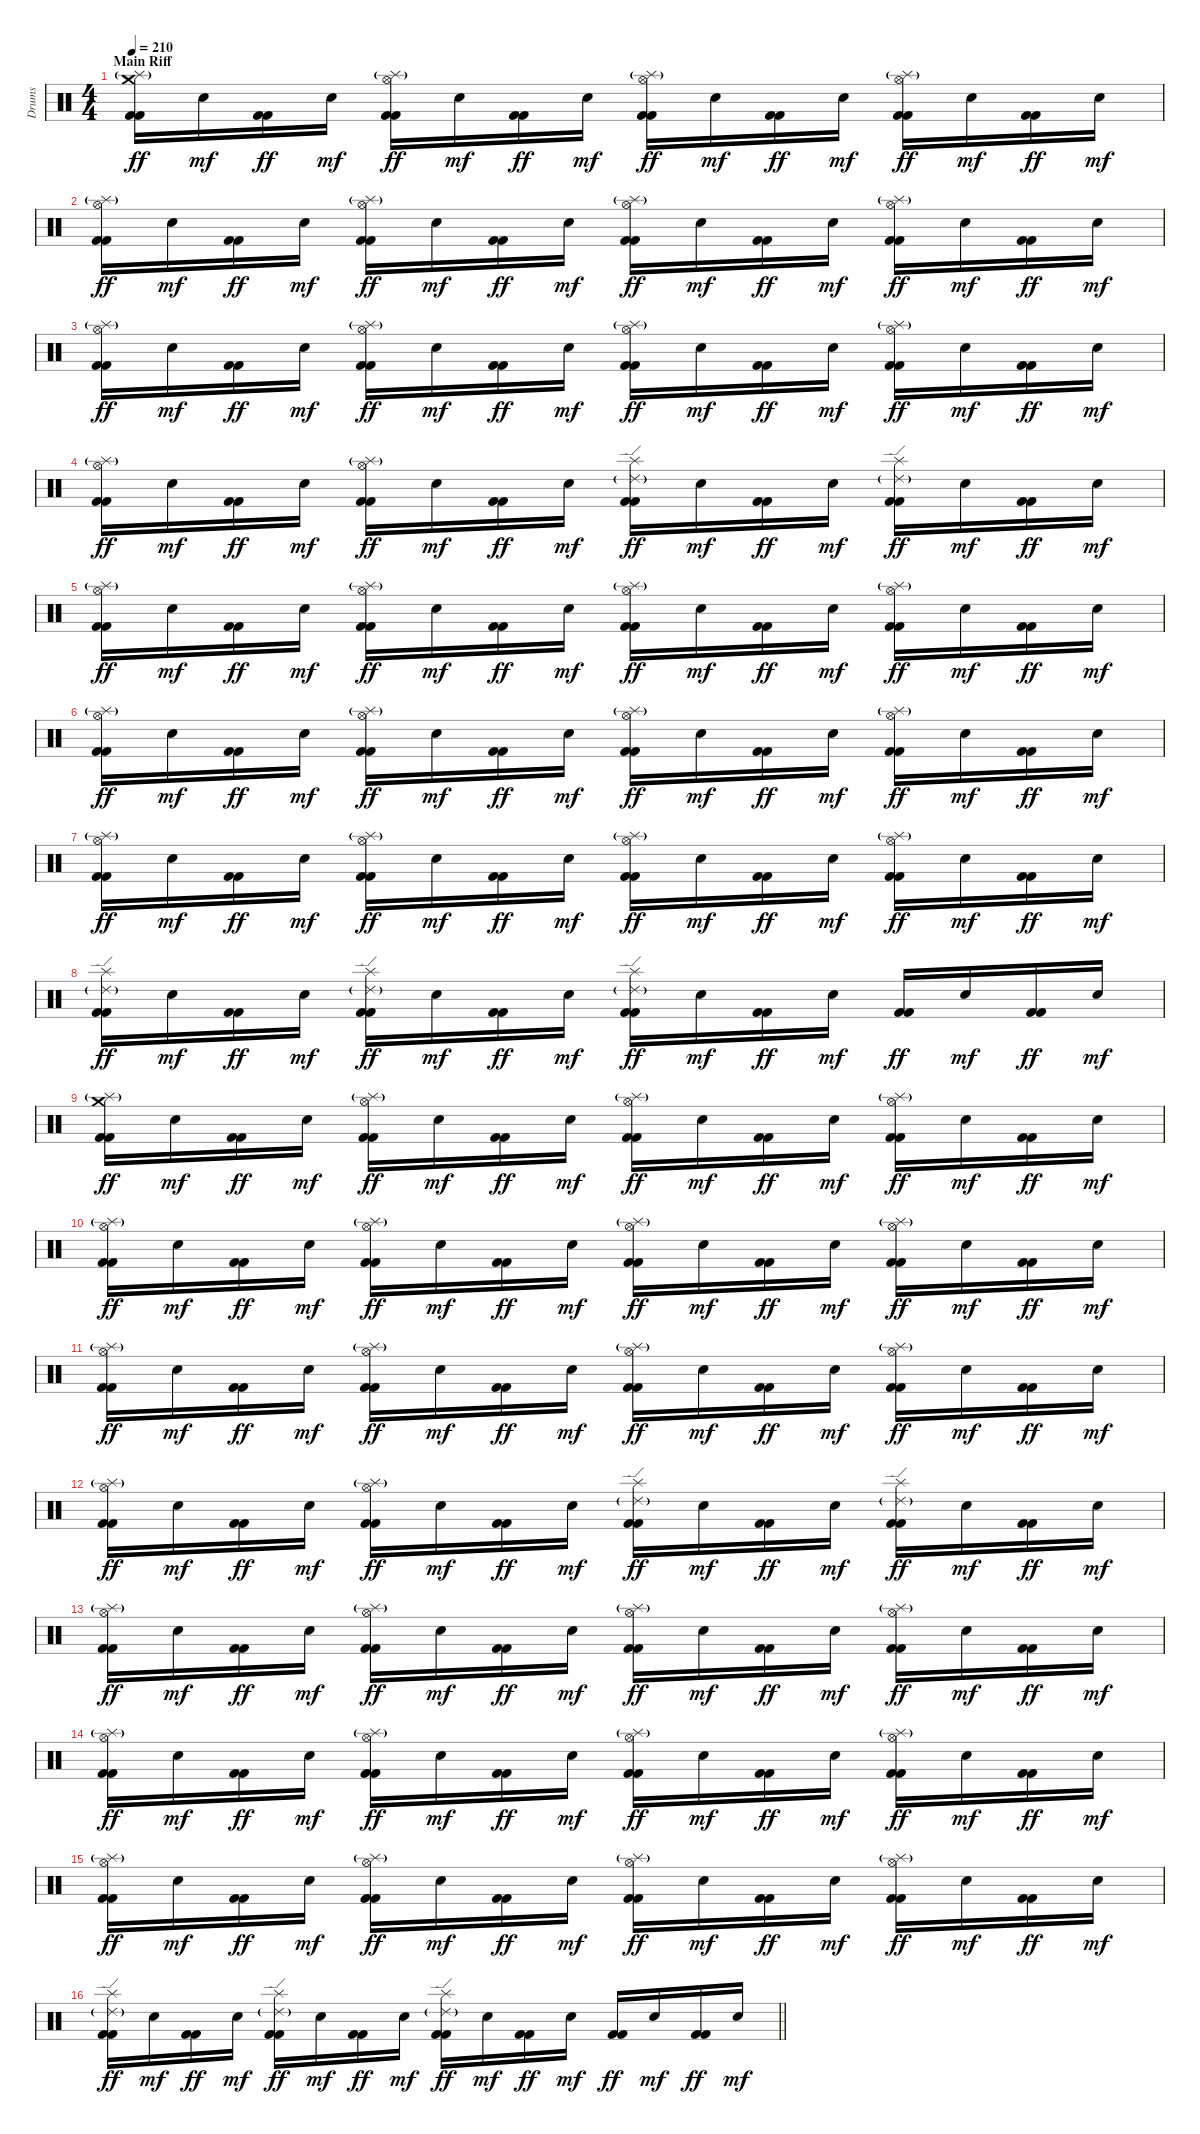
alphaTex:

\track ("Drums" "Drums") {instrument percussion}
\staff {score}
\articulation defaults
\ts (4 4)
\section ("" "Main Riff")
\tempo 210
\clef neutral
\ks c
("Crash medium (hit)" "Splash (hit)"{g} "Kick (hit) 2" "Kick (hit) 2").16{dy ff} "Snare (hit) 2".16{dy mf} ("Kick (hit) 2" "Kick (hit) 2").16{dy ff} "Snare (hit) 2".16{dy mf} ("Hi-Hat (open)" "Splash (hit)"{g} "Kick (hit) 2" "Kick (hit) 2").16{dy ff} "Snare (hit) 2".16{dy mf} ("Kick (hit) 2" "Kick (hit) 2").16{dy ff} "Snare (hit) 2".16{dy mf} ("Hi-Hat (open)" "Splash (hit)"{g} "Kick (hit) 2" "Kick (hit) 2").16{dy ff} "Snare (hit) 2".16{dy mf} ("Kick (hit) 2" "Kick (hit) 2").16{dy ff} "Snare (hit) 2".16{dy mf} ("Hi-Hat (open)" "Splash (hit)"{g} "Kick (hit) 2" "Kick (hit) 2").16{dy ff} "Snare (hit) 2".16{dy mf} ("Kick (hit) 2" "Kick (hit) 2").16{dy ff} "Snare (hit) 2".16{dy mf} |
("Hi-Hat (open)" "Splash (hit)"{g} "Kick (hit) 2" "Kick (hit) 2").16{dy ff} "Snare (hit) 2".16{dy mf} ("Kick (hit) 2" "Kick (hit) 2").16{dy ff} "Snare (hit) 2".16{dy mf} ("Hi-Hat (open)" "Splash (hit)"{g} "Kick (hit) 2" "Kick (hit) 2").16{dy ff} "Snare (hit) 2".16{dy mf} ("Kick (hit) 2" "Kick (hit) 2").16{dy ff} "Snare (hit) 2".16{dy mf} ("Hi-Hat (open)" "Splash (hit)"{g} "Kick (hit) 2" "Kick (hit) 2").16{dy ff} "Snare (hit) 2".16{dy mf} ("Kick (hit) 2" "Kick (hit) 2").16{dy ff} "Snare (hit) 2".16{dy mf} ("Hi-Hat (open)" "Splash (hit)"{g} "Kick (hit) 2" "Kick (hit) 2").16{dy ff} "Snare (hit) 2".16{dy mf} ("Kick (hit) 2" "Kick (hit) 2").16{dy ff} "Snare (hit) 2".16{dy mf} |
("Hi-Hat (open)" "Splash (hit)"{g} "Kick (hit) 2" "Kick (hit) 2").16{dy ff} "Snare (hit) 2".16{dy mf} ("Kick (hit) 2" "Kick (hit) 2").16{dy ff} "Snare (hit) 2".16{dy mf} ("Hi-Hat (open)" "Splash (hit)"{g} "Kick (hit) 2" "Kick (hit) 2").16{dy ff} "Snare (hit) 2".16{dy mf} ("Kick (hit) 2" "Kick (hit) 2").16{dy ff} "Snare (hit) 2".16{dy mf} ("Hi-Hat (open)" "Splash (hit)"{g} "Kick (hit) 2" "Kick (hit) 2").16{dy ff} "Snare (hit) 2".16{dy mf} ("Kick (hit) 2" "Kick (hit) 2").16{dy ff} "Snare (hit) 2".16{dy mf} ("Hi-Hat (open)" "Splash (hit)"{g} "Kick (hit) 2" "Kick (hit) 2").16{dy ff} "Snare (hit) 2".16{dy mf} ("Kick (hit) 2" "Kick (hit) 2").16{dy ff} "Snare (hit) 2".16{dy mf} |
("Hi-Hat (open)" "Splash (hit)"{g} "Kick (hit) 2" "Kick (hit) 2").16{dy ff} "Snare (hit) 2".16{dy mf} ("Kick (hit) 2" "Kick (hit) 2").16{dy ff} "Snare (hit) 2".16{dy mf} ("Hi-Hat (open)" "Splash (hit)"{g} "Kick (hit) 2" "Kick (hit) 2").16{dy ff} "Snare (hit) 2".16{dy mf} ("Kick (hit) 2" "Kick (hit) 2").16{dy ff} "Snare (hit) 2".16{dy mf} ("Splash (hit)" "Ride (edge) 2"{g} "Kick (hit) 2" "Kick (hit) 2").16{dy ff} "Snare (hit) 2".16{dy mf} ("Kick (hit) 2" "Kick (hit) 2").16{dy ff} "Snare (hit) 2".16{dy mf} ("Splash (hit)" "Ride (edge) 2"{g} "Kick (hit) 2" "Kick (hit) 2").16{dy ff} "Snare (hit) 2".16{dy mf} ("Kick (hit) 2" "Kick (hit) 2").16{dy ff} "Snare (hit) 2".16{dy mf} |
("Hi-Hat (open)" "Splash (hit)"{g} "Kick (hit) 2" "Kick (hit) 2").16{dy ff} "Snare (hit) 2".16{dy mf} ("Kick (hit) 2" "Kick (hit) 2").16{dy ff} "Snare (hit) 2".16{dy mf} ("Hi-Hat (open)" "Splash (hit)"{g} "Kick (hit) 2" "Kick (hit) 2").16{dy ff} "Snare (hit) 2".16{dy mf} ("Kick (hit) 2" "Kick (hit) 2").16{dy ff} "Snare (hit) 2".16{dy mf} ("Hi-Hat (open)" "Splash (hit)"{g} "Kick (hit) 2" "Kick (hit) 2").16{dy ff} "Snare (hit) 2".16{dy mf} ("Kick (hit) 2" "Kick (hit) 2").16{dy ff} "Snare (hit) 2".16{dy mf} ("Hi-Hat (open)" "Splash (hit)"{g} "Kick (hit) 2" "Kick (hit) 2").16{dy ff} "Snare (hit) 2".16{dy mf} ("Kick (hit) 2" "Kick (hit) 2").16{dy ff} "Snare (hit) 2".16{dy mf} |
("Hi-Hat (open)" "Splash (hit)"{g} "Kick (hit) 2" "Kick (hit) 2").16{dy ff} "Snare (hit) 2".16{dy mf} ("Kick (hit) 2" "Kick (hit) 2").16{dy ff} "Snare (hit) 2".16{dy mf} ("Hi-Hat (open)" "Splash (hit)"{g} "Kick (hit) 2" "Kick (hit) 2").16{dy ff} "Snare (hit) 2".16{dy mf} ("Kick (hit) 2" "Kick (hit) 2").16{dy ff} "Snare (hit) 2".16{dy mf} ("Hi-Hat (open)" "Splash (hit)"{g} "Kick (hit) 2" "Kick (hit) 2").16{dy ff} "Snare (hit) 2".16{dy mf} ("Kick (hit) 2" "Kick (hit) 2").16{dy ff} "Snare (hit) 2".16{dy mf} ("Hi-Hat (open)" "Splash (hit)"{g} "Kick (hit) 2" "Kick (hit) 2").16{dy ff} "Snare (hit) 2".16{dy mf} ("Kick (hit) 2" "Kick (hit) 2").16{dy ff} "Snare (hit) 2".16{dy mf} |
("Hi-Hat (open)" "Splash (hit)"{g} "Kick (hit) 2" "Kick (hit) 2").16{dy ff} "Snare (hit) 2".16{dy mf} ("Kick (hit) 2" "Kick (hit) 2").16{dy ff} "Snare (hit) 2".16{dy mf} ("Hi-Hat (open)" "Splash (hit)"{g} "Kick (hit) 2" "Kick (hit) 2").16{dy ff} "Snare (hit) 2".16{dy mf} ("Kick (hit) 2" "Kick (hit) 2").16{dy ff} "Snare (hit) 2".16{dy mf} ("Hi-Hat (open)" "Splash (hit)"{g} "Kick (hit) 2" "Kick (hit) 2").16{dy ff} "Snare (hit) 2".16{dy mf} ("Kick (hit) 2" "Kick (hit) 2").16{dy ff} "Snare (hit) 2".16{dy mf} ("Hi-Hat (open)" "Splash (hit)"{g} "Kick (hit) 2" "Kick (hit) 2").16{dy ff} "Snare (hit) 2".16{dy mf} ("Kick (hit) 2" "Kick (hit) 2").16{dy ff} "Snare (hit) 2".16{dy mf} |
("Splash (hit)" "Ride (edge) 2"{g} "Kick (hit) 2" "Kick (hit) 2").16{dy ff} "Snare (hit) 2".16{dy mf} ("Kick (hit) 2" "Kick (hit) 2").16{dy ff} "Snare (hit) 2".16{dy mf} ("Splash (hit)" "Ride (edge) 2"{g} "Kick (hit) 2" "Kick (hit) 2").16{dy ff} "Snare (hit) 2".16{dy mf} ("Kick (hit) 2" "Kick (hit) 2").16{dy ff} "Snare (hit) 2".16{dy mf} ("Splash (hit)" "Ride (edge) 2"{g} "Kick (hit) 2" "Kick (hit) 2").16{dy ff} "Snare (hit) 2".16{dy mf} ("Kick (hit) 2" "Kick (hit) 2").16{dy ff} "Snare (hit) 2".16{dy mf} ("Kick (hit) 2" "Kick (hit) 2").16{dy ff} "Snare (hit) 2".16{dy mf} ("Kick (hit) 2" "Kick (hit) 2").16{dy ff} "Snare (hit) 2".16{dy mf} |
("Crash medium (hit)" "Splash (hit)"{g} "Kick (hit) 2" "Kick (hit) 2").16{dy ff} "Snare (hit) 2".16{dy mf} ("Kick (hit) 2" "Kick (hit) 2").16{dy ff} "Snare (hit) 2".16{dy mf} ("Hi-Hat (open)" "Splash (hit)"{g} "Kick (hit) 2" "Kick (hit) 2").16{dy ff} "Snare (hit) 2".16{dy mf} ("Kick (hit) 2" "Kick (hit) 2").16{dy ff} "Snare (hit) 2".16{dy mf} ("Hi-Hat (open)" "Splash (hit)"{g} "Kick (hit) 2" "Kick (hit) 2").16{dy ff} "Snare (hit) 2".16{dy mf} ("Kick (hit) 2" "Kick (hit) 2").16{dy ff} "Snare (hit) 2".16{dy mf} ("Hi-Hat (open)" "Splash (hit)"{g} "Kick (hit) 2" "Kick (hit) 2").16{dy ff} "Snare (hit) 2".16{dy mf} ("Kick (hit) 2" "Kick (hit) 2").16{dy ff} "Snare (hit) 2".16{dy mf} |
("Hi-Hat (open)" "Splash (hit)"{g} "Kick (hit) 2" "Kick (hit) 2").16{dy ff} "Snare (hit) 2".16{dy mf} ("Kick (hit) 2" "Kick (hit) 2").16{dy ff} "Snare (hit) 2".16{dy mf} ("Hi-Hat (open)" "Splash (hit)"{g} "Kick (hit) 2" "Kick (hit) 2").16{dy ff} "Snare (hit) 2".16{dy mf} ("Kick (hit) 2" "Kick (hit) 2").16{dy ff} "Snare (hit) 2".16{dy mf} ("Hi-Hat (open)" "Splash (hit)"{g} "Kick (hit) 2" "Kick (hit) 2").16{dy ff} "Snare (hit) 2".16{dy mf} ("Kick (hit) 2" "Kick (hit) 2").16{dy ff} "Snare (hit) 2".16{dy mf} ("Hi-Hat (open)" "Splash (hit)"{g} "Kick (hit) 2" "Kick (hit) 2").16{dy ff} "Snare (hit) 2".16{dy mf} ("Kick (hit) 2" "Kick (hit) 2").16{dy ff} "Snare (hit) 2".16{dy mf} |
("Hi-Hat (open)" "Splash (hit)"{g} "Kick (hit) 2" "Kick (hit) 2").16{dy ff} "Snare (hit) 2".16{dy mf} ("Kick (hit) 2" "Kick (hit) 2").16{dy ff} "Snare (hit) 2".16{dy mf} ("Hi-Hat (open)" "Splash (hit)"{g} "Kick (hit) 2" "Kick (hit) 2").16{dy ff} "Snare (hit) 2".16{dy mf} ("Kick (hit) 2" "Kick (hit) 2").16{dy ff} "Snare (hit) 2".16{dy mf} ("Hi-Hat (open)" "Splash (hit)"{g} "Kick (hit) 2" "Kick (hit) 2").16{dy ff} "Snare (hit) 2".16{dy mf} ("Kick (hit) 2" "Kick (hit) 2").16{dy ff} "Snare (hit) 2".16{dy mf} ("Hi-Hat (open)" "Splash (hit)"{g} "Kick (hit) 2" "Kick (hit) 2").16{dy ff} "Snare (hit) 2".16{dy mf} ("Kick (hit) 2" "Kick (hit) 2").16{dy ff} "Snare (hit) 2".16{dy mf} |
("Hi-Hat (open)" "Splash (hit)"{g} "Kick (hit) 2" "Kick (hit) 2").16{dy ff} "Snare (hit) 2".16{dy mf} ("Kick (hit) 2" "Kick (hit) 2").16{dy ff} "Snare (hit) 2".16{dy mf} ("Hi-Hat (open)" "Splash (hit)"{g} "Kick (hit) 2" "Kick (hit) 2").16{dy ff} "Snare (hit) 2".16{dy mf} ("Kick (hit) 2" "Kick (hit) 2").16{dy ff} "Snare (hit) 2".16{dy mf} ("Splash (hit)" "Ride (edge) 2"{g} "Kick (hit) 2" "Kick (hit) 2").16{dy ff} "Snare (hit) 2".16{dy mf} ("Kick (hit) 2" "Kick (hit) 2").16{dy ff} "Snare (hit) 2".16{dy mf} ("Splash (hit)" "Ride (edge) 2"{g} "Kick (hit) 2" "Kick (hit) 2").16{dy ff} "Snare (hit) 2".16{dy mf} ("Kick (hit) 2" "Kick (hit) 2").16{dy ff} "Snare (hit) 2".16{dy mf} |
("Hi-Hat (open)" "Splash (hit)"{g} "Kick (hit) 2" "Kick (hit) 2").16{dy ff} "Snare (hit) 2".16{dy mf} ("Kick (hit) 2" "Kick (hit) 2").16{dy ff} "Snare (hit) 2".16{dy mf} ("Hi-Hat (open)" "Splash (hit)"{g} "Kick (hit) 2" "Kick (hit) 2").16{dy ff} "Snare (hit) 2".16{dy mf} ("Kick (hit) 2" "Kick (hit) 2").16{dy ff} "Snare (hit) 2".16{dy mf} ("Hi-Hat (open)" "Splash (hit)"{g} "Kick (hit) 2" "Kick (hit) 2").16{dy ff} "Snare (hit) 2".16{dy mf} ("Kick (hit) 2" "Kick (hit) 2").16{dy ff} "Snare (hit) 2".16{dy mf} ("Hi-Hat (open)" "Splash (hit)"{g} "Kick (hit) 2" "Kick (hit) 2").16{dy ff} "Snare (hit) 2".16{dy mf} ("Kick (hit) 2" "Kick (hit) 2").16{dy ff} "Snare (hit) 2".16{dy mf} |
("Hi-Hat (open)" "Splash (hit)"{g} "Kick (hit) 2" "Kick (hit) 2").16{dy ff} "Snare (hit) 2".16{dy mf} ("Kick (hit) 2" "Kick (hit) 2").16{dy ff} "Snare (hit) 2".16{dy mf} ("Hi-Hat (open)" "Splash (hit)"{g} "Kick (hit) 2" "Kick (hit) 2").16{dy ff} "Snare (hit) 2".16{dy mf} ("Kick (hit) 2" "Kick (hit) 2").16{dy ff} "Snare (hit) 2".16{dy mf} ("Hi-Hat (open)" "Splash (hit)"{g} "Kick (hit) 2" "Kick (hit) 2").16{dy ff} "Snare (hit) 2".16{dy mf} ("Kick (hit) 2" "Kick (hit) 2").16{dy ff} "Snare (hit) 2".16{dy mf} ("Hi-Hat (open)" "Splash (hit)"{g} "Kick (hit) 2" "Kick (hit) 2").16{dy ff} "Snare (hit) 2".16{dy mf} ("Kick (hit) 2" "Kick (hit) 2").16{dy ff} "Snare (hit) 2".16{dy mf} |
("Hi-Hat (open)" "Splash (hit)"{g} "Kick (hit) 2" "Kick (hit) 2").16{dy ff} "Snare (hit) 2".16{dy mf} ("Kick (hit) 2" "Kick (hit) 2").16{dy ff} "Snare (hit) 2".16{dy mf} ("Hi-Hat (open)" "Splash (hit)"{g} "Kick (hit) 2" "Kick (hit) 2").16{dy ff} "Snare (hit) 2".16{dy mf} ("Kick (hit) 2" "Kick (hit) 2").16{dy ff} "Snare (hit) 2".16{dy mf} ("Hi-Hat (open)" "Splash (hit)"{g} "Kick (hit) 2" "Kick (hit) 2").16{dy ff} "Snare (hit) 2".16{dy mf} ("Kick (hit) 2" "Kick (hit) 2").16{dy ff} "Snare (hit) 2".16{dy mf} ("Hi-Hat (open)" "Splash (hit)"{g} "Kick (hit) 2" "Kick (hit) 2").16{dy ff} "Snare (hit) 2".16{dy mf} ("Kick (hit) 2" "Kick (hit) 2").16{dy ff} "Snare (hit) 2".16{dy mf} |
\barLineRight lightlight
("Splash (hit)" "Ride (edge) 2"{g} "Kick (hit) 2" "Kick (hit) 2").16{dy ff} "Snare (hit) 2".16{dy mf} ("Kick (hit) 2" "Kick (hit) 2").16{dy ff} "Snare (hit) 2".16{dy mf} ("Splash (hit)" "Ride (edge) 2"{g} "Kick (hit) 2" "Kick (hit) 2").16{dy ff} "Snare (hit) 2".16{dy mf} ("Kick (hit) 2" "Kick (hit) 2").16{dy ff} "Snare (hit) 2".16{dy mf} ("Splash (hit)" "Ride (edge) 2"{g} "Kick (hit) 2" "Kick (hit) 2").16{dy ff} "Snare (hit) 2".16{dy mf} ("Kick (hit) 2" "Kick (hit) 2").16{dy ff} "Snare (hit) 2".16{dy mf} ("Kick (hit) 2" "Kick (hit) 2").16{dy ff} "Snare (hit) 2".16{dy mf} ("Kick (hit) 2" "Kick (hit) 2").16{dy ff} "Snare (hit) 2".16{dy mf}
